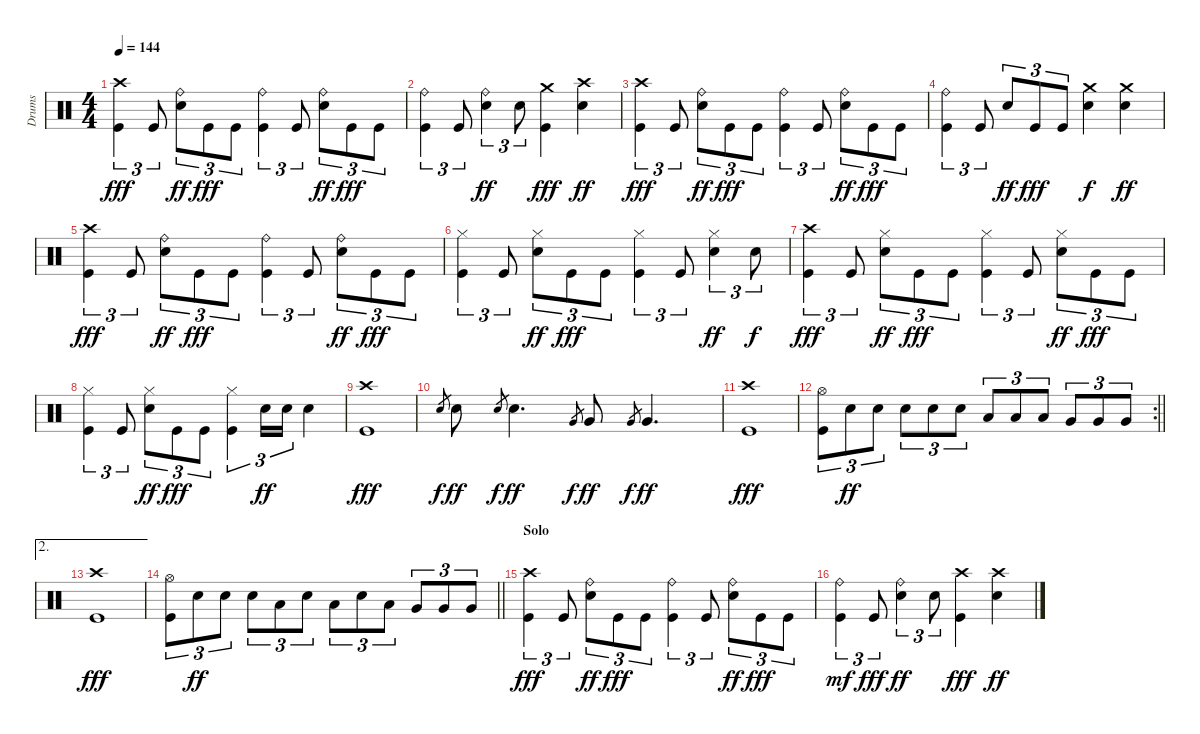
\track ("Drums" "Drums") {instrument percussion}
\staff {score}
\articulation defaults
\ts (4 4)
\tempo 144
\clef neutral
\ks c
("Kick (hit)" "Crash high (hit)").4{tu (3 2) dy fff} "Kick (hit)".8{tu (3 2)} ("Ride (bell)" "Snare (hit) 2").8{tu (3 2) dy ff} "Kick (hit)".8{tu (3 2) dy fff} "Kick (hit)".8{tu (3 2)} ("Ride (bell)" "Kick (hit)").4{tu (3 2)} "Kick (hit)".8{tu (3 2)} ("Ride (bell)" "Snare (hit) 2").8{tu (3 2) dy ff} "Kick (hit)".8{tu (3 2) dy fff} "Kick (hit)".8{tu (3 2)} |
("Kick (hit)" "Ride (bell)").4{tu (3 2)} "Kick (hit)".8{tu (3 2)} ("Ride (bell)" "Snare (hit) 2").4{tu (3 2) dy ff} "Snare (hit) 2".8{tu (3 2)} ("Crash medium (hit)" "Kick (hit)").4{dy fff} ("Snare (hit) 2" "Crash high (hit)").4{dy ff} |
("Kick (hit)" "Crash high (hit)").4{tu (3 2) dy fff} "Kick (hit)".8{tu (3 2)} ("Ride (bell)" "Snare (hit) 2").8{tu (3 2) dy ff} "Kick (hit)".8{tu (3 2) dy fff} "Kick (hit)".8{tu (3 2)} ("Ride (bell)" "Kick (hit)").4{tu (3 2)} "Kick (hit)".8{tu (3 2)} ("Ride (bell)" "Snare (hit) 2").8{tu (3 2) dy ff} "Kick (hit)".8{tu (3 2) dy fff} "Kick (hit)".8{tu (3 2)} |
("Kick (hit)" "Ride (bell)").4{tu (3 2)} "Kick (hit)".8{tu (3 2)} "Snare (hit) 2".8{tu (3 2) dy ff} "Kick (hit)".8{tu (3 2) dy fff} "Kick (hit)".8{tu (3 2)} ("Crash medium (hit)" "Snare (hit) 2").4{dy f} ("Snare (hit) 2" "Crash medium (hit)").4{dy ff} |
("Kick (hit)" "Crash high (hit)").4{tu (3 2) dy fff} "Kick (hit)".8{tu (3 2)} ("Ride (bell)" "Snare (hit) 2").8{tu (3 2) dy ff} "Kick (hit)".8{tu (3 2) dy fff} "Kick (hit)".8{tu (3 2)} ("Ride (bell)" "Kick (hit)").4{tu (3 2)} "Kick (hit)".8{tu (3 2)} ("Ride (bell)" "Snare (hit) 2").8{tu (3 2) dy ff} "Kick (hit)".8{tu (3 2) dy fff} "Kick (hit)".8{tu (3 2)} |
("Kick (hit)" "Hi-Hat (closed)").4{tu (3 2)} "Kick (hit)".8{tu (3 2)} ("Hi-Hat (closed)" "Snare (hit) 2").8{tu (3 2) dy ff} "Kick (hit)".8{tu (3 2) dy fff} "Kick (hit)".8{tu (3 2)} ("Hi-Hat (closed)" "Kick (hit)").4{tu (3 2)} "Kick (hit)".8{tu (3 2)} ("Hi-Hat (closed)" "Snare (hit) 2").4{tu (3 2) dy ff} "Snare (hit) 2".8{tu (3 2) dy f} |
("Kick (hit)" "Crash high (hit)").4{tu (3 2) dy fff} "Kick (hit)".8{tu (3 2)} ("Hi-Hat (closed)" "Snare (hit) 2").8{tu (3 2) dy ff} "Kick (hit)".8{tu (3 2) dy fff} "Kick (hit)".8{tu (3 2)} ("Hi-Hat (closed)" "Kick (hit)").4{tu (3 2)} "Kick (hit)".8{tu (3 2)} ("Hi-Hat (closed)" "Snare (hit) 2").8{tu (3 2) dy ff} "Kick (hit)".8{tu (3 2) dy fff} "Kick (hit)".8{tu (3 2)} |
("Kick (hit)" "Hi-Hat (closed)").4{tu (3 2)} "Kick (hit)".8{tu (3 2)} ("Hi-Hat (closed)" "Snare (hit) 2").8{tu (3 2) dy ff} "Kick (hit)".8{tu (3 2) dy fff} "Kick (hit)".8{tu (3 2)} ("Hi-Hat (closed)" "Kick (hit)").4{tu (3 2)} "Snare (hit) 2".16{tu (3 2) dy ff} "Snare (hit) 2".16{tu (3 2)} "Snare (hit) 2".4 |
("Kick (hit)" "Crash high (hit)").1{dy fff} |
"Snare (hit) 2".8{gr dy f} "Snare (hit) 2".8{dy ff} "Snare (hit) 2".8{gr dy f} "Snare (hit) 2".4{d dy ff} "Very Low Tom (hit)".8{gr dy f} "Very Low Tom (hit)".8{dy ff} "Very Low Tom (hit)".8{gr dy f} "Very Low Tom (hit)".4{d dy ff} |
("Kick (hit)" "Crash high (hit)").1{dy fff} |
\rc 2
\barLineRight lightlight
("Hi-Hat (open)" "Kick (hit)").8{tu (3 2)} "Snare (hit) 2".8{tu (3 2) dy ff} "Snare (hit) 2".8{tu (3 2)} "Snare (hit) 2".8{tu (3 2)} "Snare (hit) 2".8{tu (3 2)} "Snare (hit) 2".8{tu (3 2)} "Low Tom (hit)".8{tu (3 2)} "Low Tom (hit)".8{tu (3 2)} "Low Tom (hit)".8{tu (3 2)} "Very Low Tom (hit)".8{tu (3 2)} "Very Low Tom (hit)".8{tu (3 2)} "Very Low Tom (hit)".8{tu (3 2)} |
\ae 2
("Kick (hit)" "Crash high (hit)").1{dy fff} |
\barLineRight lightlight
("Hi-Hat (open)" "Kick (hit)").8{tu (3 2)} "Snare (hit) 2".8{tu (3 2) dy ff} "Snare (hit) 2".8{tu (3 2)} "Snare (hit) 2".8{tu (3 2)} "Low Tom (hit)".8{tu (3 2)} "Snare (hit) 2".8{tu (3 2)} "Low Tom (hit)".8{tu (3 2)} "Snare (hit) 2".8{tu (3 2)} "Low Tom (hit)".8{tu (3 2)} "Very Low Tom (hit)".8{tu (3 2)} "Very Low Tom (hit)".8{tu (3 2)} "Very Low Tom (hit)".8{tu (3 2)} |
\section ("" "Solo")
("Kick (hit)" "Crash high (hit)").4{tu (3 2) dy fff} "Kick (hit)".8{tu (3 2)} ("Ride (bell)" "Snare (hit) 2").8{tu (3 2) dy ff} "Kick (hit)".8{tu (3 2) dy fff} "Kick (hit)".8{tu (3 2)} ("Ride (bell)" "Kick (hit)").4{tu (3 2)} "Kick (hit)".8{tu (3 2)} ("Ride (bell)" "Snare (hit) 2").8{tu (3 2) dy ff} "Kick (hit)".8{tu (3 2) dy fff} "Kick (hit)".8{tu (3 2)} |
("Kick (hit)" "Ride (bell)").4{tu (3 2) dy mf} "Kick (hit)".8{tu (3 2) dy fff} ("Ride (bell)" "Snare (hit) 2").4{tu (3 2) dy ff} "Snare (hit) 2".8{tu (3 2)} ("Crash high (hit)" "Kick (hit)").4{dy fff} ("Snare (hit) 2" "Crash high (hit)").4{dy ff}
